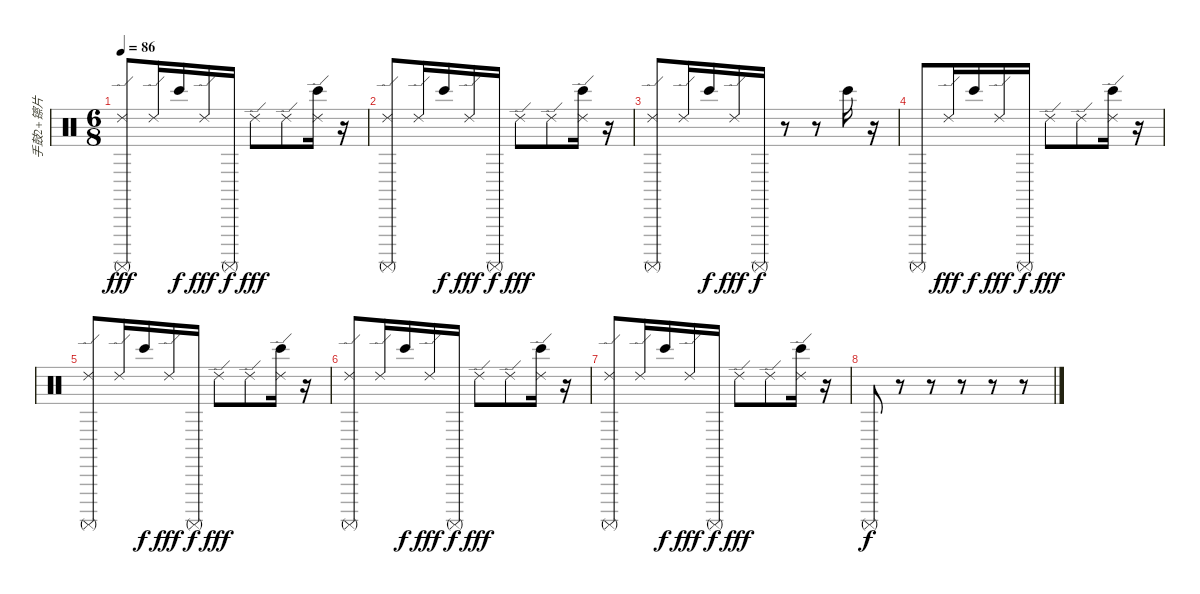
\track ("手鼓2+镲片" "手鼓2+镲片") {instrument percussion}
\staff {score}
\articulation defaults
\ts (6 8)
\tempo 86
\clef neutral
\ks c
("Ride (edge) 2" "Surdo (mute)").8{dy fff} "Ride (edge) 2".16 "Bongo High (hit)".16{dy f} "Ride (edge) 2".16{dy fff} "Surdo (mute)".16{dy f} "Ride (edge) 2".8{dy fff} "Ride (edge) 2".8 ("Ride (edge) 2" "Bongo High (hit)").16 r.16 |
("Ride (edge) 2" "Surdo (mute)").8 "Ride (edge) 2".16 "Bongo High (hit)".16{dy f} "Ride (edge) 2".16{dy fff} "Surdo (mute)".16{dy f} "Ride (edge) 2".8{dy fff} "Ride (edge) 2".8 ("Ride (edge) 2" "Bongo High (hit)").16 r.16 |
("Ride (edge) 2" "Surdo (mute)").8 "Ride (edge) 2".16 "Bongo High (hit)".16{dy f} "Ride (edge) 2".16{dy fff} "Surdo (mute)".16{dy f} r.8 r.8 "Bongo High (hit)".16 r.16 |
"Surdo (mute)".8 "Ride (edge) 2".16{dy fff} "Bongo High (hit)".16{dy f} "Ride (edge) 2".16{dy fff} "Surdo (mute)".16{dy f} "Ride (edge) 2".8{dy fff} "Ride (edge) 2".8 ("Ride (edge) 2" "Bongo High (hit)").16 r.16 |
("Ride (edge) 2" "Surdo (mute)").8 "Ride (edge) 2".16 "Bongo High (hit)".16{dy f} "Ride (edge) 2".16{dy fff} "Surdo (mute)".16{dy f} "Ride (edge) 2".8{dy fff} "Ride (edge) 2".8 ("Ride (edge) 2" "Bongo High (hit)").16 r.16 |
("Ride (edge) 2" "Surdo (mute)").8 "Ride (edge) 2".16 "Bongo High (hit)".16{dy f} "Ride (edge) 2".16{dy fff} "Surdo (mute)".16{dy f} "Ride (edge) 2".8{dy fff} "Ride (edge) 2".8 ("Ride (edge) 2" "Bongo High (hit)").16 r.16 |
("Ride (edge) 2" "Surdo (mute)").8 "Ride (edge) 2".16 "Bongo High (hit)".16{dy f} "Ride (edge) 2".16{dy fff} "Surdo (mute)".16{dy f} "Ride (edge) 2".8{dy fff} "Ride (edge) 2".8 ("Ride (edge) 2" "Bongo High (hit)").16 r.16 |
"Surdo (mute)".8{dy f} r.8 r.8 r.8 r.8 r.8
